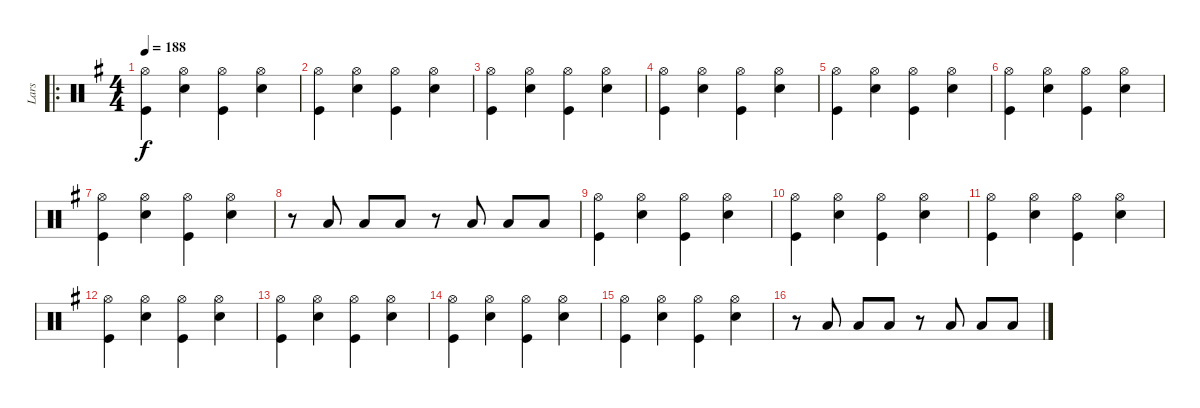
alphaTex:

\track ("Lars" "Lars") {instrument percussion}
\staff {score}
\articulation defaults
\ro
\ts (4 4)
\tempo 188
\clef neutral
\ks eminor
("Kick (hit)" "Hi-Hat (open)").4{dy f} ("Hi-Hat (open)" "Snare (hit) 2").4 ("Hi-Hat (open)" "Kick (hit)").4 ("Hi-Hat (open)" "Snare (hit) 2").4 |
("Kick (hit)" "Hi-Hat (open)").4 ("Hi-Hat (open)" "Snare (hit) 2").4 ("Hi-Hat (open)" "Kick (hit)").4 ("Hi-Hat (open)" "Snare (hit) 2").4 |
("Kick (hit)" "Hi-Hat (open)").4 ("Hi-Hat (open)" "Snare (hit) 2").4 ("Hi-Hat (open)" "Kick (hit)").4 ("Hi-Hat (open)" "Snare (hit) 2").4 |
("Kick (hit)" "Hi-Hat (open)").4 ("Hi-Hat (open)" "Snare (hit) 2").4 ("Hi-Hat (open)" "Kick (hit)").4 ("Hi-Hat (open)" "Snare (hit) 2").4 |
("Kick (hit)" "Hi-Hat (open)").4 ("Hi-Hat (open)" "Snare (hit) 2").4 ("Hi-Hat (open)" "Kick (hit)").4 ("Hi-Hat (open)" "Snare (hit) 2").4 |
("Kick (hit)" "Hi-Hat (open)").4 ("Hi-Hat (open)" "Snare (hit) 2").4 ("Hi-Hat (open)" "Kick (hit)").4 ("Hi-Hat (open)" "Snare (hit) 2").4 |
("Kick (hit)" "Hi-Hat (open)").4 ("Hi-Hat (open)" "Snare (hit) 2").4 ("Hi-Hat (open)" "Kick (hit)").4 ("Hi-Hat (open)" "Snare (hit) 2").4 |
r.8 "Low Tom (hit)".8 "Low Tom (hit)".8 "Low Tom (hit)".8 r.8 "Low Tom (hit)".8 "Low Tom (hit)".8 "Low Tom (hit)".8 |
("Kick (hit)" "Hi-Hat (open)").4 ("Hi-Hat (open)" "Snare (hit) 2").4 ("Hi-Hat (open)" "Kick (hit)").4 ("Hi-Hat (open)" "Snare (hit) 2").4 |
("Kick (hit)" "Hi-Hat (open)").4 ("Hi-Hat (open)" "Snare (hit) 2").4 ("Hi-Hat (open)" "Kick (hit)").4 ("Hi-Hat (open)" "Snare (hit) 2").4 |
("Kick (hit)" "Hi-Hat (open)").4 ("Hi-Hat (open)" "Snare (hit) 2").4 ("Hi-Hat (open)" "Kick (hit)").4 ("Hi-Hat (open)" "Snare (hit) 2").4 |
("Kick (hit)" "Hi-Hat (open)").4 ("Hi-Hat (open)" "Snare (hit) 2").4 ("Hi-Hat (open)" "Kick (hit)").4 ("Hi-Hat (open)" "Snare (hit) 2").4 |
("Kick (hit)" "Hi-Hat (open)").4 ("Hi-Hat (open)" "Snare (hit) 2").4 ("Hi-Hat (open)" "Kick (hit)").4 ("Hi-Hat (open)" "Snare (hit) 2").4 |
("Kick (hit)" "Hi-Hat (open)").4 ("Hi-Hat (open)" "Snare (hit) 2").4 ("Hi-Hat (open)" "Kick (hit)").4 ("Hi-Hat (open)" "Snare (hit) 2").4 |
("Kick (hit)" "Hi-Hat (open)").4 ("Hi-Hat (open)" "Snare (hit) 2").4 ("Hi-Hat (open)" "Kick (hit)").4 ("Hi-Hat (open)" "Snare (hit) 2").4 |
r.8 "Low Tom (hit)".8 "Low Tom (hit)".8 "Low Tom (hit)".8 r.8 "Low Tom (hit)".8 "Low Tom (hit)".8 "Low Tom (hit)".8
